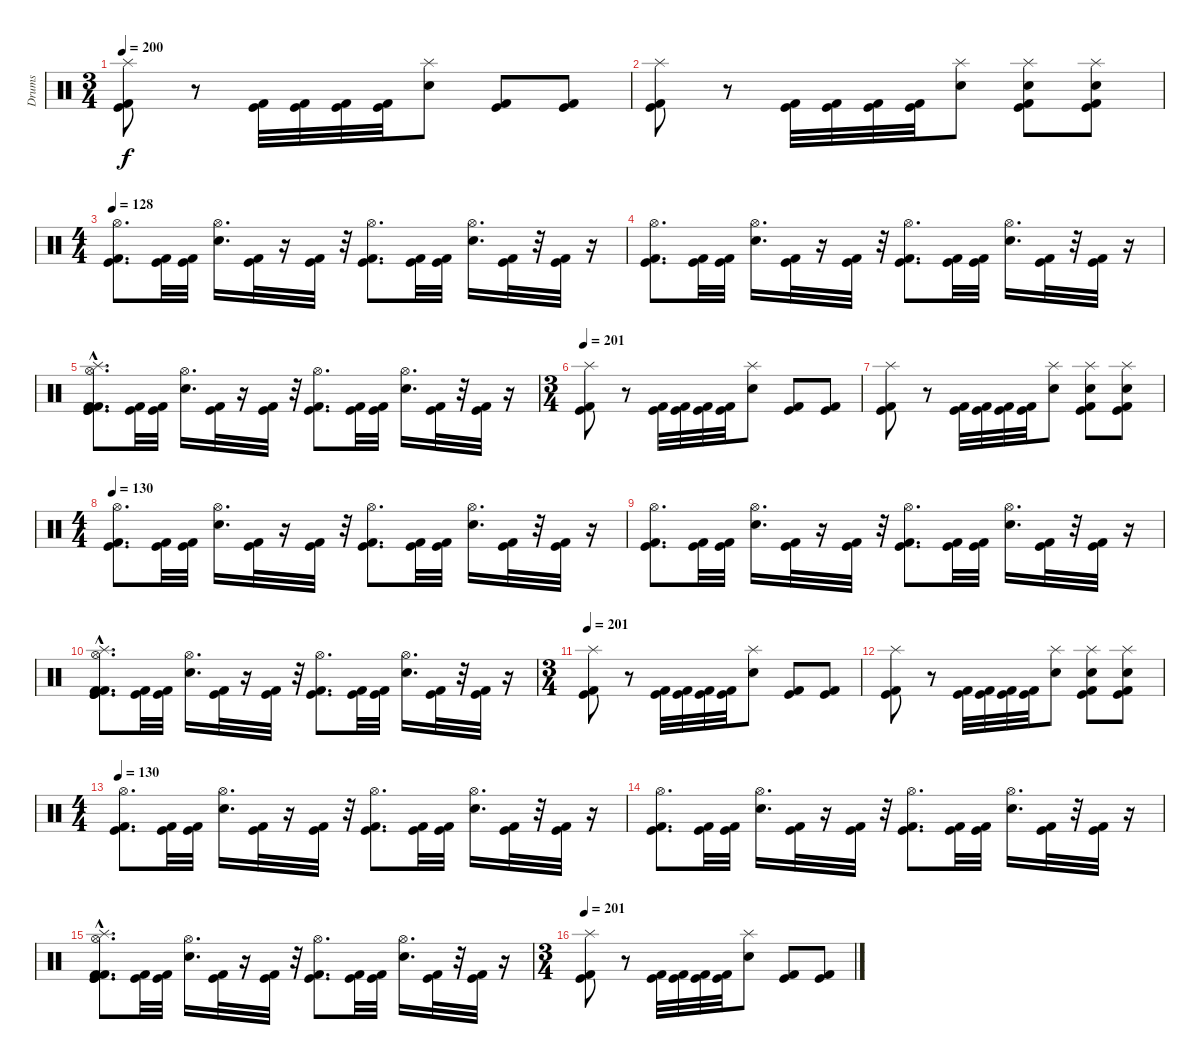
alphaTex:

\track ("Drums" "Drums") {instrument percussion}
\staff {score}
\articulation defaults
\ts (3 4)
\tempo 200
\clef neutral
\ks c
("Splash (hit)" "Kick (hit)" "Kick (hit) 2").8{dy f} r.8 ("Kick (hit)" "Kick (hit) 2").32 ("Kick (hit) 2" "Kick (hit)").32 ("Kick (hit) 2" "Kick (hit)").32 ("Kick (hit) 2" "Kick (hit)").32 ("Splash (hit)" "Electric Snare (hit)").8 ("Kick (hit)" "Kick (hit) 2").8 ("Kick (hit)" "Kick (hit) 2").8 |
("Splash (hit)" "Kick (hit)" "Kick (hit) 2").8 r.8 ("Kick (hit) 2" "Kick (hit)").32 ("Kick (hit) 2" "Kick (hit)").32 ("Kick (hit) 2" "Kick (hit)").32 ("Kick (hit) 2" "Kick (hit)").32 ("Electric Snare (hit)" "Splash (hit)").8 ("Electric Snare (hit)" "Splash (hit)" "Kick (hit)" "Kick (hit) 2").8 ("Electric Snare (hit)" "Splash (hit)" "Kick (hit)" "Kick (hit) 2").8 |
\ts (4 4)
\tempo 128
("Kick (hit)" "Kick (hit) 2" "Hi-Hat (open)").8{d} ("Kick (hit)" "Kick (hit) 2").32 ("Kick (hit)" "Kick (hit) 2").32 ("Snare (hit) 2" "Hi-Hat (open)").16{d} ("Kick (hit)" "Kick (hit) 2").32 r.16 ("Kick (hit)" "Kick (hit) 2").32 r.32 ("Kick (hit)" "Kick (hit) 2" "Hi-Hat (open)").8{d} ("Kick (hit)" "Kick (hit) 2").32 ("Kick (hit)" "Kick (hit) 2").32 ("Electric Snare (hit)" "Hi-Hat (open)").16{d} ("Kick (hit)" "Kick (hit) 2").32 r.32 ("Kick (hit)" "Kick (hit) 2").32 r.16 |
("Kick (hit)" "Kick (hit) 2" "Hi-Hat (open)").8{d} ("Kick (hit)" "Kick (hit) 2").32 ("Kick (hit)" "Kick (hit) 2").32 ("Snare (hit) 2" "Hi-Hat (open)").16{d} ("Kick (hit)" "Kick (hit) 2").32 r.16 ("Kick (hit)" "Kick (hit) 2").32 r.32 ("Kick (hit)" "Kick (hit) 2" "Hi-Hat (open)").8{d} ("Kick (hit)" "Kick (hit) 2").32 ("Kick (hit)" "Kick (hit) 2").32 ("Electric Snare (hit)" "Hi-Hat (open)").16{d} ("Kick (hit)" "Kick (hit) 2").32 r.32 ("Kick (hit)" "Kick (hit) 2").32 r.16 |
("Kick (hit)"{hac} "Splash (hit)" "Kick (hit) 2"{hac} "Kick (hit)" "Kick (hit) 2" "Hi-Hat (open)").8{d} ("Kick (hit)" "Kick (hit) 2").32 ("Kick (hit)" "Kick (hit) 2").32 ("Snare (hit) 2" "Hi-Hat (open)").16{d} ("Kick (hit)" "Kick (hit) 2").32 r.16 ("Kick (hit)" "Kick (hit) 2").32 r.32 ("Kick (hit)" "Kick (hit) 2" "Hi-Hat (open)").8{d} ("Kick (hit)" "Kick (hit) 2").32 ("Kick (hit)" "Kick (hit) 2").32 ("Electric Snare (hit)" "Hi-Hat (open)").16{d} ("Kick (hit)" "Kick (hit) 2").32 r.32 ("Kick (hit)" "Kick (hit) 2").32 r.16 |
\ts (3 4)
\tempo 201
("Splash (hit)" "Kick (hit)" "Kick (hit) 2").8 r.8 ("Kick (hit)" "Kick (hit) 2").32 ("Kick (hit) 2" "Kick (hit)").32 ("Kick (hit) 2" "Kick (hit)").32 ("Kick (hit) 2" "Kick (hit)").32 ("Splash (hit)" "Electric Snare (hit)").8 ("Kick (hit)" "Kick (hit) 2").8 ("Kick (hit)" "Kick (hit) 2").8 |
("Splash (hit)" "Kick (hit)" "Kick (hit) 2").8 r.8 ("Kick (hit) 2" "Kick (hit)").32 ("Kick (hit) 2" "Kick (hit)").32 ("Kick (hit) 2" "Kick (hit)").32 ("Kick (hit) 2" "Kick (hit)").32 ("Electric Snare (hit)" "Splash (hit)").8 ("Electric Snare (hit)" "Splash (hit)" "Kick (hit)" "Kick (hit) 2").8 ("Electric Snare (hit)" "Splash (hit)" "Kick (hit)" "Kick (hit) 2").8 |
\ts (4 4)
\tempo 130
("Kick (hit)" "Kick (hit) 2" "Hi-Hat (open)").8{d} ("Kick (hit)" "Kick (hit) 2").32 ("Kick (hit)" "Kick (hit) 2").32 ("Snare (hit) 2" "Hi-Hat (open)").16{d} ("Kick (hit)" "Kick (hit) 2").32 r.16 ("Kick (hit)" "Kick (hit) 2").32 r.32 ("Kick (hit)" "Kick (hit) 2" "Hi-Hat (open)").8{d} ("Kick (hit)" "Kick (hit) 2").32 ("Kick (hit)" "Kick (hit) 2").32 ("Electric Snare (hit)" "Hi-Hat (open)").16{d} ("Kick (hit)" "Kick (hit) 2").32 r.32 ("Kick (hit)" "Kick (hit) 2").32 r.16 |
("Kick (hit)" "Kick (hit) 2" "Hi-Hat (open)").8{d} ("Kick (hit)" "Kick (hit) 2").32 ("Kick (hit)" "Kick (hit) 2").32 ("Snare (hit) 2" "Hi-Hat (open)").16{d} ("Kick (hit)" "Kick (hit) 2").32 r.16 ("Kick (hit)" "Kick (hit) 2").32 r.32 ("Kick (hit)" "Kick (hit) 2" "Hi-Hat (open)").8{d} ("Kick (hit)" "Kick (hit) 2").32 ("Kick (hit)" "Kick (hit) 2").32 ("Electric Snare (hit)" "Hi-Hat (open)").16{d} ("Kick (hit)" "Kick (hit) 2").32 r.32 ("Kick (hit)" "Kick (hit) 2").32 r.16 |
("Kick (hit)"{hac} "Splash (hit)" "Kick (hit) 2"{hac} "Kick (hit)" "Kick (hit) 2" "Hi-Hat (open)").8{d} ("Kick (hit)" "Kick (hit) 2").32 ("Kick (hit)" "Kick (hit) 2").32 ("Snare (hit) 2" "Hi-Hat (open)").16{d} ("Kick (hit)" "Kick (hit) 2").32 r.16 ("Kick (hit)" "Kick (hit) 2").32 r.32 ("Kick (hit)" "Kick (hit) 2" "Hi-Hat (open)").8{d} ("Kick (hit)" "Kick (hit) 2").32 ("Kick (hit)" "Kick (hit) 2").32 ("Electric Snare (hit)" "Hi-Hat (open)").16{d} ("Kick (hit)" "Kick (hit) 2").32 r.32 ("Kick (hit)" "Kick (hit) 2").32 r.16 |
\ts (3 4)
\tempo 201
("Splash (hit)" "Kick (hit)" "Kick (hit) 2").8 r.8 ("Kick (hit)" "Kick (hit) 2").32 ("Kick (hit) 2" "Kick (hit)").32 ("Kick (hit) 2" "Kick (hit)").32 ("Kick (hit) 2" "Kick (hit)").32 ("Splash (hit)" "Electric Snare (hit)").8 ("Kick (hit)" "Kick (hit) 2").8 ("Kick (hit)" "Kick (hit) 2").8 |
("Splash (hit)" "Kick (hit)" "Kick (hit) 2").8 r.8 ("Kick (hit) 2" "Kick (hit)").32 ("Kick (hit) 2" "Kick (hit)").32 ("Kick (hit) 2" "Kick (hit)").32 ("Kick (hit) 2" "Kick (hit)").32 ("Electric Snare (hit)" "Splash (hit)").8 ("Electric Snare (hit)" "Splash (hit)" "Kick (hit)" "Kick (hit) 2").8 ("Electric Snare (hit)" "Splash (hit)" "Kick (hit)" "Kick (hit) 2").8 |
\ts (4 4)
\tempo 130
("Kick (hit)" "Kick (hit) 2" "Hi-Hat (open)").8{d} ("Kick (hit)" "Kick (hit) 2").32 ("Kick (hit)" "Kick (hit) 2").32 ("Snare (hit) 2" "Hi-Hat (open)").16{d} ("Kick (hit)" "Kick (hit) 2").32 r.16 ("Kick (hit)" "Kick (hit) 2").32 r.32 ("Kick (hit)" "Kick (hit) 2" "Hi-Hat (open)").8{d} ("Kick (hit)" "Kick (hit) 2").32 ("Kick (hit)" "Kick (hit) 2").32 ("Electric Snare (hit)" "Hi-Hat (open)").16{d} ("Kick (hit)" "Kick (hit) 2").32 r.32 ("Kick (hit)" "Kick (hit) 2").32 r.16 |
("Kick (hit)" "Kick (hit) 2" "Hi-Hat (open)").8{d} ("Kick (hit)" "Kick (hit) 2").32 ("Kick (hit)" "Kick (hit) 2").32 ("Snare (hit) 2" "Hi-Hat (open)").16{d} ("Kick (hit)" "Kick (hit) 2").32 r.16 ("Kick (hit)" "Kick (hit) 2").32 r.32 ("Kick (hit)" "Kick (hit) 2" "Hi-Hat (open)").8{d} ("Kick (hit)" "Kick (hit) 2").32 ("Kick (hit)" "Kick (hit) 2").32 ("Electric Snare (hit)" "Hi-Hat (open)").16{d} ("Kick (hit)" "Kick (hit) 2").32 r.32 ("Kick (hit)" "Kick (hit) 2").32 r.16 |
("Kick (hit)"{hac} "Splash (hit)" "Kick (hit) 2"{hac} "Kick (hit)" "Kick (hit) 2" "Hi-Hat (open)").8{d} ("Kick (hit)" "Kick (hit) 2").32 ("Kick (hit)" "Kick (hit) 2").32 ("Snare (hit) 2" "Hi-Hat (open)").16{d} ("Kick (hit)" "Kick (hit) 2").32 r.16 ("Kick (hit)" "Kick (hit) 2").32 r.32 ("Kick (hit)" "Kick (hit) 2" "Hi-Hat (open)").8{d} ("Kick (hit)" "Kick (hit) 2").32 ("Kick (hit)" "Kick (hit) 2").32 ("Electric Snare (hit)" "Hi-Hat (open)").16{d} ("Kick (hit)" "Kick (hit) 2").32 r.32 ("Kick (hit)" "Kick (hit) 2").32 r.16 |
\ts (3 4)
\tempo 201
("Splash (hit)" "Kick (hit)" "Kick (hit) 2").8 r.8 ("Kick (hit)" "Kick (hit) 2").32 ("Kick (hit) 2" "Kick (hit)").32 ("Kick (hit) 2" "Kick (hit)").32 ("Kick (hit) 2" "Kick (hit)").32 ("Splash (hit)" "Electric Snare (hit)").8 ("Kick (hit)" "Kick (hit) 2").8 ("Kick (hit)" "Kick (hit) 2").8
